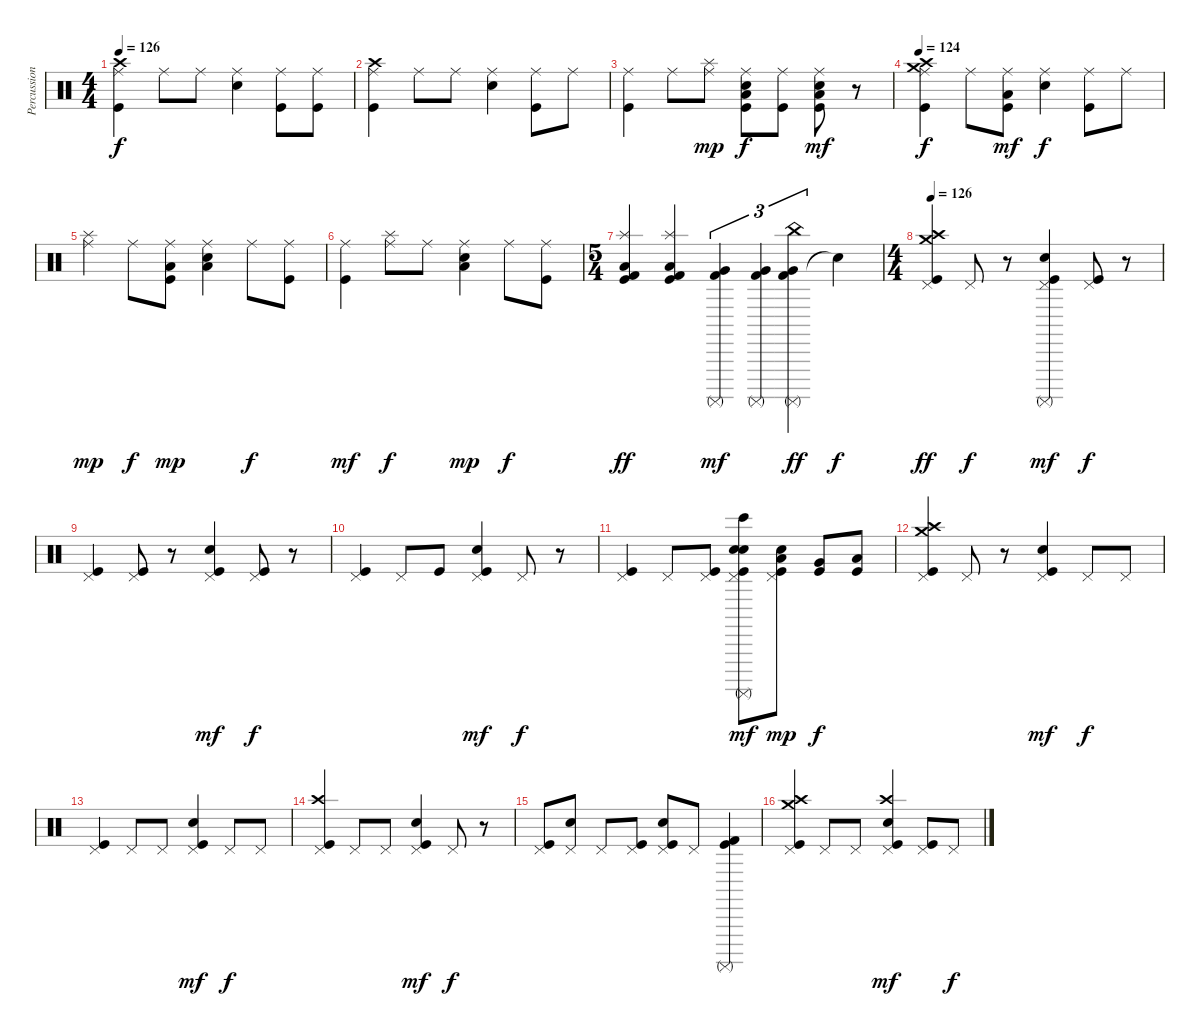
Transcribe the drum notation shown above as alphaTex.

\track ("Percussion" "Percussion") {instrument percussion}
\staff {score}
\articulation defaults
\ts (4 4)
\tempo 126
\clef neutral
\ks c
("Ride (middle)" "Kick (hit)" "Crash high (hit)").4{dy f} "Ride (middle)".8 "Ride (middle)".8 ("Ride (middle)" "Electric Snare (hit)").4 ("Ride (middle)" "Kick (hit)").8 ("Ride (middle)" "Kick (hit)").8 |
("Ride (middle)" "Kick (hit)" "Crash high (hit)").4 "Ride (middle)".8 "Ride (middle)".8 ("Ride (middle)" "Electric Snare (hit)").4 ("Ride (middle)" "Kick (hit)").8 "Ride (middle)".8 |
("Ride (middle)" "Kick (hit)").4 "Ride (middle)".8 ("Ride (middle)" "Splash (hit)").8{dy mp} ("Ride (middle)" "Kick (hit)" "Low Floor Tom (hit)" "Snare (hit) 2").8{dy f} ("Ride (middle)" "Kick (hit)").8 ("Ride (middle)" "Kick (hit)" "Low Floor Tom (hit)" "Electric Snare (hit)").8{dy mf} r.8 |
\tempo 124
("Ride (middle)" "Kick (hit)" "Crash high (hit)" "Crash medium (hit)").4{dy f} "Ride (middle)".8 ("Ride (middle)" "Kick (hit)" "Low Floor Tom (hit)").8{dy mf} ("Ride (middle)" "Electric Snare (hit)").4{dy f} ("Ride (middle)" "Kick (hit)").8 "Ride (middle)".8 |
("Ride (middle)" "Splash (hit)").4{dy mp} "Ride (middle)".8{dy f} ("Ride (middle)" "Kick (hit)" "Low Floor Tom (hit)").8{dy mp} ("Ride (middle)" "Electric Snare (hit)" "Low Floor Tom (hit)").4 "Ride (middle)".8{dy f} ("Ride (middle)" "Kick (hit)").8 |
("Ride (middle)" "Kick (hit)").4{dy mf} ("Ride (middle)" "Splash (hit)").8{dy f} "Ride (middle)".8 ("Ride (middle)" "Electric Snare (hit)" "Low Floor Tom (hit)").4{dy mp} "Ride (middle)".8{dy f} ("Ride (middle)" "Kick (hit)").8 |
\ts (5 4)
("Kick (hit) 2" "Kick (hit)" "Low Floor Tom (hit)" "Splash (hit)").4{dy ff} ("Kick (hit) 2" "Kick (hit)" "Low Floor Tom (hit)" "Splash (hit)").4 ("Kick (hit) 2" "Surdo (mute)" "Very Low Tom (hit)").4{tu (3 2) dy mf} ("Kick (hit) 2" "Surdo (mute)" "Very Low Tom (hit)").4{tu (3 2)} ("Kick (hit) 2" "Surdo (mute)" "Very Low Tom (hit)" "China (hit)").4{tu (3 2) dy ff} "Snare (hit)"{t}.4{dy f} |
\ts (4 4)
\tempo 126
("Pedal Hi-Hat (hit)" "Kick (hit)" "Crash high (hit)" "Crash medium (hit)").4{dy ff} "Pedal Hi-Hat (hit)".8{dy f} r.8 ("Pedal Hi-Hat (hit)" "Surdo (mute)" "Electric Snare (hit)" "Kick (hit)").4{dy mf} ("Pedal Hi-Hat (hit)" "Kick (hit)").8{dy f} r.8 |
("Pedal Hi-Hat (hit)" "Kick (hit)").4 ("Pedal Hi-Hat (hit)" "Kick (hit)").8 r.8 ("Pedal Hi-Hat (hit)" "Kick (hit)" "Electric Snare (hit)").4{dy mf} ("Pedal Hi-Hat (hit)" "Kick (hit)").8{dy f} r.8 |
("Pedal Hi-Hat (hit)" "Kick (hit)").4 "Pedal Hi-Hat (hit)".8 "Kick (hit)".8 ("Pedal Hi-Hat (hit)" "Kick (hit)" "Electric Snare (hit)").4{dy mf} "Pedal Hi-Hat (hit)".8{dy f} r.8 |
("Pedal Hi-Hat (hit)" "Kick (hit)").4 "Pedal Hi-Hat (hit)".8 ("Pedal Hi-Hat (hit)" "Kick (hit)").8 ("Surdo (mute)" "Hand Clap (hit)" "Pedal Hi-Hat (hit)" "Bongo High (hit)" "Electric Snare (hit)" "Kick (hit)").8{dy mf} ("Low Tom (hit)" "Pedal Hi-Hat (hit)" "Kick (hit)" "Electric Snare (hit)").8{dy mp} ("Very Low Tom (hit)" "Kick (hit)").8{dy f} ("Low Floor Tom (hit)" "Kick (hit)").8 |
("Pedal Hi-Hat (hit)" "Kick (hit)" "Crash high (hit)" "Crash medium (hit)").4 "Pedal Hi-Hat (hit)".8 r.8 ("Pedal Hi-Hat (hit)" "Kick (hit)" "Electric Snare (hit)").4{dy mf} "Pedal Hi-Hat (hit)".8{dy f} "Pedal Hi-Hat (hit)".8 |
("Pedal Hi-Hat (hit)" "Kick (hit)").4 "Pedal Hi-Hat (hit)".8 "Pedal Hi-Hat (hit)".8 ("Pedal Hi-Hat (hit)" "Kick (hit)" "Electric Snare (hit)").4{dy mf} "Pedal Hi-Hat (hit)".8{dy f} "Pedal Hi-Hat (hit)".8 |
("Pedal Hi-Hat (hit)" "Kick (hit)" "Crash high (hit)").4 "Pedal Hi-Hat (hit)".8 "Pedal Hi-Hat (hit)".8 ("Pedal Hi-Hat (hit)" "Kick (hit)" "Electric Snare (hit)").4{dy mf} "Pedal Hi-Hat (hit)".8{dy f} r.8 |
("Pedal Hi-Hat (hit)" "Kick (hit)").8 ("Pedal Hi-Hat (hit)" "Electric Snare (hit)").8 "Pedal Hi-Hat (hit)".8 ("Pedal Hi-Hat (hit)" "Kick (hit)").8 ("Pedal Hi-Hat (hit)" "Electric Snare (hit)" "Kick (hit)").8 "Pedal Hi-Hat (hit)".8 ("Kick (hit) 2" "Kick (hit)" "Surdo (mute)").4 |
("Pedal Hi-Hat (hit)" "Kick (hit)" "Crash high (hit)" "Crash medium (hit)").4 "Pedal Hi-Hat (hit)".8 "Pedal Hi-Hat (hit)".8 ("Crash high (hit)" "Pedal Hi-Hat (hit)" "Kick (hit)" "Electric Snare (hit)").4{dy mf} ("Pedal Hi-Hat (hit)" "Kick (hit)").8 "Pedal Hi-Hat (hit)".8{dy f}
